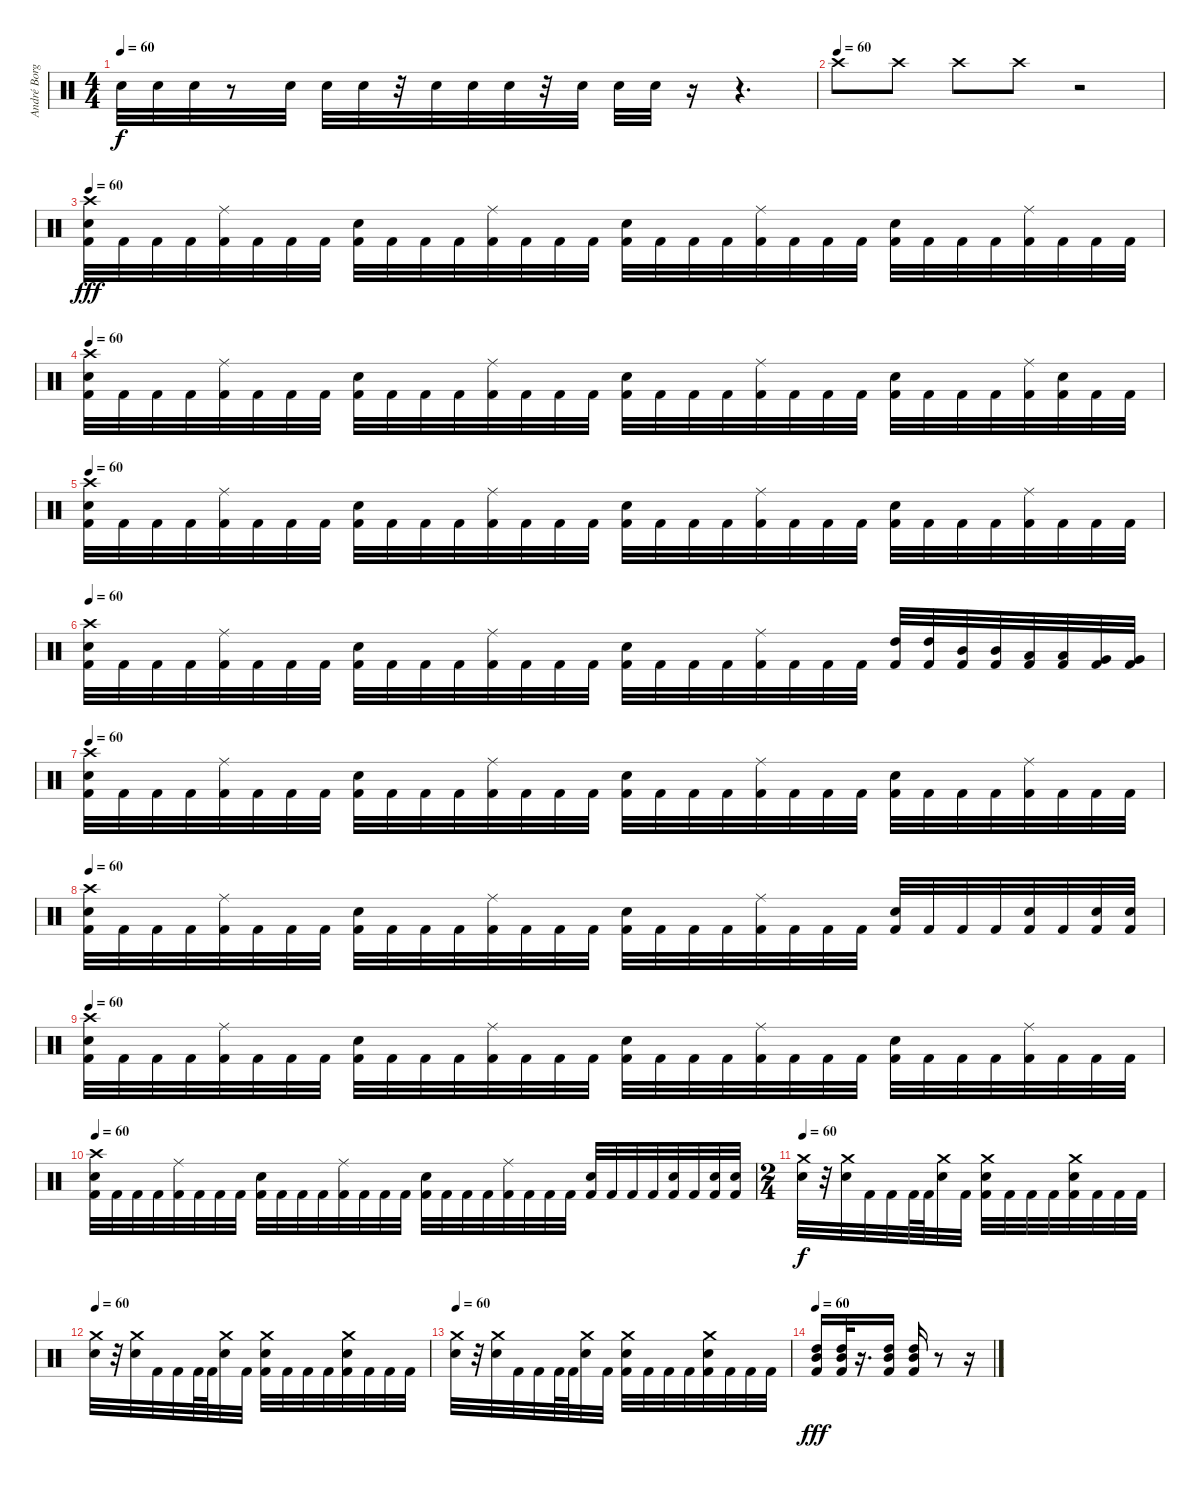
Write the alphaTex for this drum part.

\track ("André Borgman" "André Borg") {instrument percussion}
\staff {score}
\articulation defaults
\ts (4 4)
\tempo 60
\clef neutral
\ks c "Electric Snare (hit)".32{dy f} "Electric Snare (hit)".32 "Electric Snare (hit)".32
r.8 "Electric Snare (hit)".32 "Electric Snare (hit)".32 "Electric Snare (hit)".32 r.32 "Electric Snare (hit)".32 "Electric Snare (hit)".32 "Electric Snare (hit)".32 r.32 "Electric Snare (hit)".32 "Electric Snare (hit)".32 "Electric Snare (hit)".32 r.16 r.4{d} |
\tempo (60)
"Crash high (hit)".8 "Crash high (hit)".8 "Crash high (hit)".8 "Crash high (hit)".8 r.2 |
\tempo 60
("Crash high (hit)" "Electric Snare (hit)" "Kick (hit) 2").32{dy fff} "Kick (hit) 2".32 "Kick (hit) 2".32 "Kick (hit) 2".32 ("Ride (middle)" "Kick (hit) 2").32 "Kick (hit) 2".32 "Kick (hit) 2".32 "Kick (hit) 2".32 ("Electric Snare (hit)" "Kick (hit) 2").32 "Kick (hit) 2".32 "Kick (hit) 2".32 "Kick (hit) 2".32 ("Ride (middle)" "Kick (hit) 2").32 "Kick (hit) 2".32 "Kick (hit) 2".32 "Kick (hit) 2".32 ("Electric Snare (hit)" "Kick (hit) 2").32 "Kick (hit) 2".32 "Kick (hit) 2".32 "Kick (hit) 2".32 ("Ride (middle)" "Kick (hit) 2").32 "Kick (hit) 2".32 "Kick (hit) 2".32 "Kick (hit) 2".32 ("Electric Snare (hit)" "Kick (hit) 2").32 "Kick (hit) 2".32 "Kick (hit) 2".32 "Kick (hit) 2".32 ("Ride (middle)" "Kick (hit) 2").32 "Kick (hit) 2".32 "Kick (hit) 2".32 "Kick (hit) 2".32 |
\tempo 60
("Crash high (hit)" "Electric Snare (hit)" "Kick (hit) 2").32 "Kick (hit) 2".32 "Kick (hit) 2".32 "Kick (hit) 2".32 ("Ride (middle)" "Kick (hit) 2").32 "Kick (hit) 2".32 "Kick (hit) 2".32 "Kick (hit) 2".32 ("Electric Snare (hit)" "Kick (hit) 2").32 "Kick (hit) 2".32 "Kick (hit) 2".32 "Kick (hit) 2".32 ("Ride (middle)" "Kick (hit) 2").32 "Kick (hit) 2".32 "Kick (hit) 2".32 "Kick (hit) 2".32 ("Electric Snare (hit)" "Kick (hit) 2").32 "Kick (hit) 2".32 "Kick (hit) 2".32 "Kick (hit) 2".32 ("Ride (middle)" "Kick (hit) 2").32 "Kick (hit) 2".32 "Kick (hit) 2".32 "Kick (hit) 2".32 ("Electric Snare (hit)" "Kick (hit) 2").32 "Kick (hit) 2".32 "Kick (hit) 2".32 "Kick (hit) 2".32 ("Ride (middle)" "Kick (hit) 2").32 ("Electric Snare (hit)" "Kick (hit) 2").32 "Kick (hit) 2".32 "Kick (hit) 2".32 |
\tempo 60
("Crash high (hit)" "Electric Snare (hit)" "Kick (hit) 2").32 "Kick (hit) 2".32 "Kick (hit) 2".32 "Kick (hit) 2".32 ("Ride (middle)" "Kick (hit) 2").32 "Kick (hit) 2".32 "Kick (hit) 2".32 "Kick (hit) 2".32 ("Electric Snare (hit)" "Kick (hit) 2").32 "Kick (hit) 2".32 "Kick (hit) 2".32 "Kick (hit) 2".32 ("Ride (middle)" "Kick (hit) 2").32 "Kick (hit) 2".32 "Kick (hit) 2".32 "Kick (hit) 2".32 ("Electric Snare (hit)" "Kick (hit) 2").32 "Kick (hit) 2".32 "Kick (hit) 2".32 "Kick (hit) 2".32 ("Ride (middle)" "Kick (hit) 2").32 "Kick (hit) 2".32 "Kick (hit) 2".32 "Kick (hit) 2".32 ("Electric Snare (hit)" "Kick (hit) 2").32 "Kick (hit) 2".32 "Kick (hit) 2".32 "Kick (hit) 2".32 ("Ride (middle)" "Kick (hit) 2").32 "Kick (hit) 2".32 "Kick (hit) 2".32 "Kick (hit) 2".32 |
\tempo 60
("Crash high (hit)" "Electric Snare (hit)" "Kick (hit) 2").32 "Kick (hit) 2".32 "Kick (hit) 2".32 "Kick (hit) 2".32 ("Ride (middle)" "Kick (hit) 2").32 "Kick (hit) 2".32 "Kick (hit) 2".32 "Kick (hit) 2".32 ("Electric Snare (hit)" "Kick (hit) 2").32 "Kick (hit) 2".32 "Kick (hit) 2".32 "Kick (hit) 2".32 ("Ride (middle)" "Kick (hit) 2").32 "Kick (hit) 2".32 "Kick (hit) 2".32 "Kick (hit) 2".32 ("Electric Snare (hit)" "Kick (hit) 2").32 "Kick (hit) 2".32 "Kick (hit) 2".32 "Kick (hit) 2".32 ("Ride (middle)" "Kick (hit) 2").32 "Kick (hit) 2".32 "Kick (hit) 2".32 "Kick (hit) 2".32 ("High Tom (hit)" "Kick (hit) 2").32 ("High Tom (hit)" "Kick (hit) 2").32 ("Mid Tom (hit)" "Kick (hit) 2").32 ("Mid Tom (hit)" "Kick (hit) 2").32 ("Low Tom (hit)" "Kick (hit) 2").32 ("Low Tom (hit)" "Kick (hit) 2").32 ("Very Low Tom (hit)" "Kick (hit) 2").32 ("Very Low Tom (hit)" "Kick (hit) 2").32 |
\tempo 60
("Crash high (hit)" "Electric Snare (hit)" "Kick (hit) 2").32 "Kick (hit) 2".32 "Kick (hit) 2".32 "Kick (hit) 2".32 ("Ride (middle)" "Kick (hit) 2").32 "Kick (hit) 2".32 "Kick (hit) 2".32 "Kick (hit) 2".32 ("Electric Snare (hit)" "Kick (hit) 2").32 "Kick (hit) 2".32 "Kick (hit) 2".32 "Kick (hit) 2".32 ("Ride (middle)" "Kick (hit) 2").32 "Kick (hit) 2".32 "Kick (hit) 2".32 "Kick (hit) 2".32 ("Electric Snare (hit)" "Kick (hit) 2").32 "Kick (hit) 2".32 "Kick (hit) 2".32 "Kick (hit) 2".32 ("Ride (middle)" "Kick (hit) 2").32 "Kick (hit) 2".32 "Kick (hit) 2".32 "Kick (hit) 2".32 ("Electric Snare (hit)" "Kick (hit) 2").32 "Kick (hit) 2".32 "Kick (hit) 2".32 "Kick (hit) 2".32 ("Ride (middle)" "Kick (hit) 2").32 "Kick (hit) 2".32 "Kick (hit) 2".32 "Kick (hit) 2".32 |
\tempo 60
("Crash high (hit)" "Electric Snare (hit)" "Kick (hit) 2").32 "Kick (hit) 2".32 "Kick (hit) 2".32 "Kick (hit) 2".32 ("Ride (middle)" "Kick (hit) 2").32 "Kick (hit) 2".32 "Kick (hit) 2".32 "Kick (hit) 2".32 ("Electric Snare (hit)" "Kick (hit) 2").32 "Kick (hit) 2".32 "Kick (hit) 2".32 "Kick (hit) 2".32 ("Ride (middle)" "Kick (hit) 2").32 "Kick (hit) 2".32 "Kick (hit) 2".32 "Kick (hit) 2".32 ("Electric Snare (hit)" "Kick (hit) 2").32 "Kick (hit) 2".32 "Kick (hit) 2".32 "Kick (hit) 2".32 ("Ride (middle)" "Kick (hit) 2").32 "Kick (hit) 2".32 "Kick (hit) 2".32 "Kick (hit) 2".32 ("Electric Snare (hit)" "Kick (hit) 2").32 "Kick (hit) 2".32 "Kick (hit) 2".32 "Kick (hit) 2".32 ("Electric Snare (hit)" "Kick (hit) 2").32 "Kick (hit) 2".32 ("Electric Snare (hit)" "Kick (hit) 2").32 ("Electric Snare (hit)" "Kick (hit) 2").32 |
\tempo 60
("Crash high (hit)" "Electric Snare (hit)" "Kick (hit) 2").32 "Kick (hit) 2".32 "Kick (hit) 2".32 "Kick (hit) 2".32 ("Ride (middle)" "Kick (hit) 2").32 "Kick (hit) 2".32 "Kick (hit) 2".32 "Kick (hit) 2".32 ("Electric Snare (hit)" "Kick (hit) 2").32 "Kick (hit) 2".32 "Kick (hit) 2".32 "Kick (hit) 2".32 ("Ride (middle)" "Kick (hit) 2").32 "Kick (hit) 2".32 "Kick (hit) 2".32 "Kick (hit) 2".32 ("Electric Snare (hit)" "Kick (hit) 2").32 "Kick (hit) 2".32 "Kick (hit) 2".32 "Kick (hit) 2".32 ("Ride (middle)" "Kick (hit) 2").32 "Kick (hit) 2".32 "Kick (hit) 2".32 "Kick (hit) 2".32 ("Electric Snare (hit)" "Kick (hit) 2").32 "Kick (hit) 2".32 "Kick (hit) 2".32 "Kick (hit) 2".32 ("Ride (middle)" "Kick (hit) 2").32 "Kick (hit) 2".32 "Kick (hit) 2".32 "Kick (hit) 2".32 |
\tempo 60
("Crash high (hit)" "Electric Snare (hit)" "Kick (hit) 2").32 "Kick (hit) 2".32 "Kick (hit) 2".32 "Kick (hit) 2".32 ("Ride (middle)" "Kick (hit) 2").32 "Kick (hit) 2".32 "Kick (hit) 2".32 "Kick (hit) 2".32 ("Electric Snare (hit)" "Kick (hit) 2").32 "Kick (hit) 2".32 "Kick (hit) 2".32 "Kick (hit) 2".32 ("Ride (middle)" "Kick (hit) 2").32 "Kick (hit) 2".32 "Kick (hit) 2".32 "Kick (hit) 2".32 ("Electric Snare (hit)" "Kick (hit) 2").32 "Kick (hit) 2".32 "Kick (hit) 2".32 "Kick (hit) 2".32 ("Ride (middle)" "Kick (hit) 2").32 "Kick (hit) 2".32 "Kick (hit) 2".32 "Kick (hit) 2".32 ("Electric Snare (hit)" "Kick (hit) 2").32 "Kick (hit) 2".32 "Kick (hit) 2".32 "Kick (hit) 2".32 ("Electric Snare (hit)" "Kick (hit) 2").32 "Kick (hit) 2".32 ("Electric Snare (hit)" "Kick (hit) 2").32 ("Electric Snare (hit)" "Kick (hit) 2").32 |
\ts (2 4)
\tempo 60
("Crash medium (hit)" "Electric Snare (hit)").32{dy f} r.32 ("Crash medium (hit)" "Electric Snare (hit)").32 "Kick (hit) 2".32 "Kick (hit) 2".32 "Kick (hit) 2".64 "Kick (hit) 2".64 ("Crash medium (hit)" "Electric Snare (hit)").32 "Kick (hit) 2".32 ("Crash medium (hit)" "Electric Snare (hit)" "Kick (hit) 2").32 "Kick (hit) 2".32 "Kick (hit) 2".32 "Kick (hit) 2".32 ("Crash medium (hit)" "Electric Snare (hit)" "Kick (hit) 2").32 "Kick (hit) 2".32 "Kick (hit) 2".32 "Kick (hit) 2".32 |
\tempo 60
("Crash medium (hit)" "Electric Snare (hit)").32 r.32 ("Crash medium (hit)" "Electric Snare (hit)").32 "Kick (hit) 2".32 "Kick (hit) 2".32 "Kick (hit) 2".64 "Kick (hit) 2".64 ("Crash medium (hit)" "Electric Snare (hit)").32 "Kick (hit) 2".32 ("Crash medium (hit)" "Electric Snare (hit)" "Kick (hit) 2").32 "Kick (hit) 2".32 "Kick (hit) 2".32 "Kick (hit) 2".32 ("Crash medium (hit)" "Electric Snare (hit)" "Kick (hit) 2").32 "Kick (hit) 2".32 "Kick (hit) 2".32 "Kick (hit) 2".32 |
\tempo 60
("Crash medium (hit)" "Electric Snare (hit)").32 r.32 ("Crash medium (hit)" "Electric Snare (hit)").32 "Kick (hit) 2".32 "Kick (hit) 2".32 "Kick (hit) 2".64 "Kick (hit) 2".64 ("Crash medium (hit)" "Electric Snare (hit)").32 "Kick (hit) 2".32 ("Crash medium (hit)" "Electric Snare (hit)" "Kick (hit) 2").32 "Kick (hit) 2".32 "Kick (hit) 2".32 "Kick (hit) 2".32 ("Crash medium (hit)" "Electric Snare (hit)" "Kick (hit) 2").32 "Kick (hit) 2".32 "Kick (hit) 2".32 "Kick (hit) 2".32 |
\tempo 60
("Mid Tom (hit)" "High Tom (hit)" "Kick (hit) 2").16{dy fff} ("Mid Tom (hit)" "High Tom (hit)" "Kick (hit) 2").32 r.16{d} ("Mid Tom (hit)" "High Tom (hit)" "Kick (hit) 2").16 ("Mid Tom (hit)" "High Tom (hit)" "Kick (hit) 2").16 r.8 r.16
